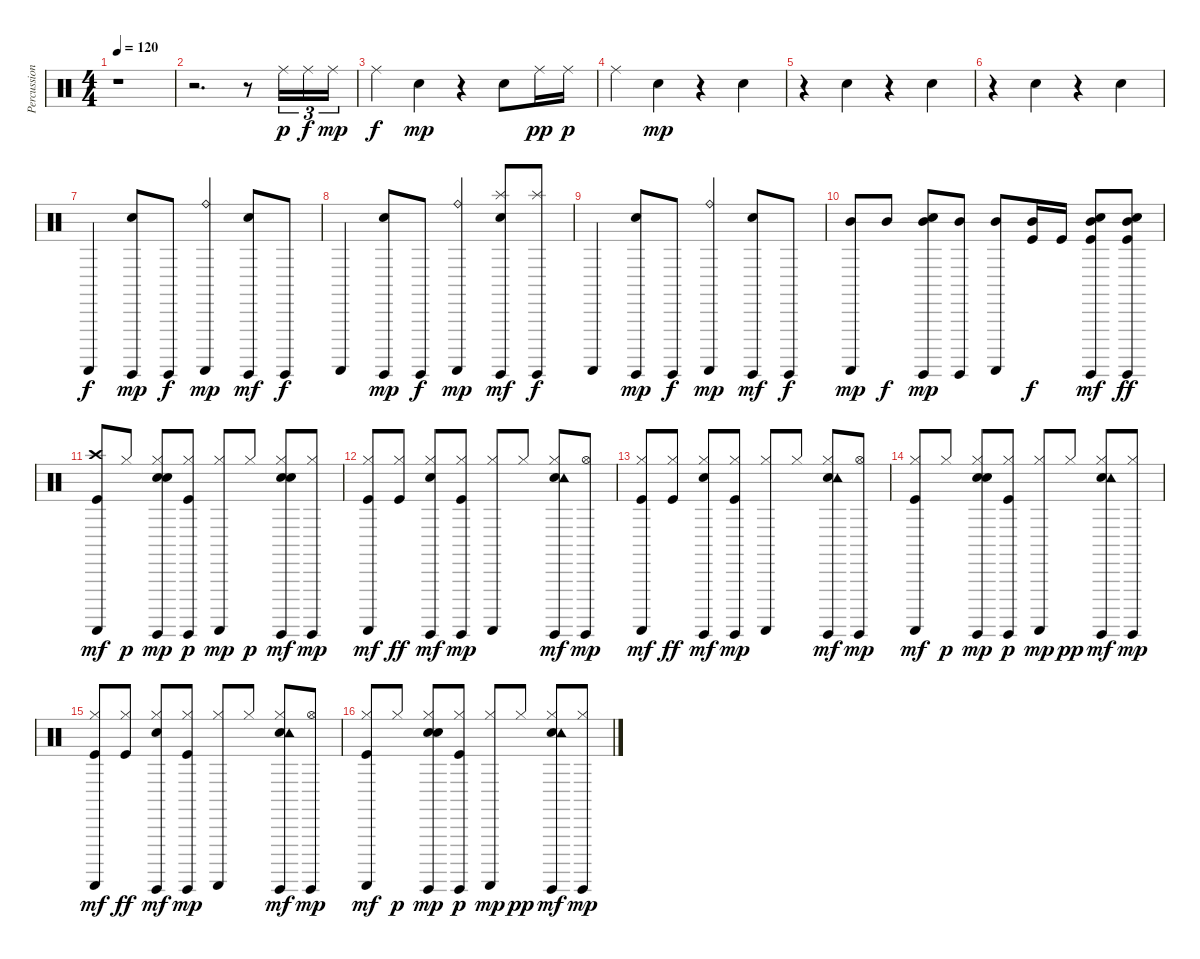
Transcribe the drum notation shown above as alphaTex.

\track ("Percussions" "Percussion") {instrument percussion}
\staff {score}
\articulation defaults
\ts (4 4)
\tempo 120
\clef neutral
\ks c
r.1{dy p} |
r.2{d} r.8 "Ride (middle)".16{tu (3 2)} "Ride (middle)".16{tu (3 2) dy f} "Ride (middle)".16{tu (3 2) dy mp} |
"Ride (middle)".4{dy f} "Hand Clap (hit)".4{dy mp} r.4 "Hand Clap (hit)".8 "Ride (middle)".16{dy pp} "Ride (middle)".16{dy p} |
"Ride (middle)".4 "Hand Clap (hit)".4{dy mp} r.4 "Hand Clap (hit)".4 |
r.4 "Hand Clap (hit)".4 r.4 "Hand Clap (hit)".4 |
r.4 "Hand Clap (hit)".4 r.4 "Hand Clap (hit)".4 |
"Guiro (scrap-return)".4{dy f} ("Hand Clap (hit)" "Guiro (hit)").8{dy mp} "Guiro (hit)".8{dy f} ("Ride (bell)" "Guiro (scrap-return)").4{dy mp} ("Hand Clap (hit)" "Guiro (hit)").8{dy mf} "Guiro (hit)".8{dy f} |
"Guiro (scrap-return)".4 ("Hand Clap (hit)" "Guiro (hit)").8{dy mp} "Guiro (hit)".8{dy f} ("Ride (bell)" "Guiro (scrap-return)").4{dy mp} ("Hand Clap (hit)" "Guiro (hit)" "Splash (hit)").8{dy mf} ("Guiro (hit)" "Splash (hit)").8{dy f} |
"Guiro (scrap-return)".4 ("Hand Clap (hit)" "Guiro (hit)").8{dy mp} "Guiro (hit)".8{dy f} ("Ride (bell)" "Guiro (scrap-return)").4{dy mp} ("Hand Clap (hit)" "Guiro (hit)").8{dy mf} "Guiro (hit)".8{dy f} |
("Guiro (scrap-return)" "Mid Tom (hit)").8{dy mp} "Mid Tom (hit)".8{dy f} ("Hand Clap (hit)" "Guiro (hit)" "Mid Tom (hit)").8{dy mp} ("Guiro (hit)" "Mid Tom (hit)").8 ("Mid Tom (hit)" "Guiro (scrap-return)").8 ("Mid Tom (hit)" "Kick (hit)").16{dy f} "Kick (hit)".16 ("Hand Clap (hit)" "Guiro (hit)" "Mid Tom (hit)" "Kick (hit)").8{dy mf} ("Hand Clap (hit)" "Guiro (hit)" "Mid Tom (hit)" "Kick (hit)").8{dy ff} |
("Crash high (hit)" "Guiro (scrap-return)" "Kick (hit)").8{dy mf} "Hi-Hat (closed)".8{dy p} ("Hi-Hat (closed)" "Guiro (hit)" "Snare (hit) 2" "Hand Clap (hit)").8{dy mp} ("Hi-Hat (closed)" "Guiro (hit)" "Kick (hit)").8{dy p} ("Hi-Hat (closed)" "Guiro (scrap-return)").8{dy mp} "Hi-Hat (closed)".8{dy p} ("Hi-Hat (closed)" "Guiro (hit)" "Snare (hit) 2" "Hand Clap (hit)").8{dy mf} ("Hi-Hat (closed)" "Guiro (hit)").8{dy mp} |
("Hi-Hat (closed)" "Guiro (scrap-return)" "Kick (hit)").8{dy mf} ("Hi-Hat (closed)" "Kick (hit)").8{dy ff} ("Hi-Hat (closed)" "Guiro (hit)" "Snare (hit) 2").8{dy mf} ("Hi-Hat (closed)" "Guiro (hit)" "Kick (hit)").8{dy mp} ("Hi-Hat (closed)" "Guiro (scrap-return)").8 "Hi-Hat (closed)".8 ("Hi-Hat (closed)" "Guiro (hit)" "Snare (hit) 2" "Tambourine (hit)").8{dy mf} ("Hi-Hat (open)" "Guiro (hit)").8{dy mp} |
("Hi-Hat (closed)" "Guiro (scrap-return)" "Kick (hit)").8{dy mf} ("Hi-Hat (closed)" "Kick (hit)").8{dy ff} ("Hi-Hat (closed)" "Guiro (hit)" "Snare (hit) 2").8{dy mf} ("Hi-Hat (closed)" "Guiro (hit)" "Kick (hit)").8{dy mp} ("Hi-Hat (closed)" "Guiro (scrap-return)").8 "Hi-Hat (closed)".8 ("Hi-Hat (closed)" "Guiro (hit)" "Snare (hit) 2" "Tambourine (hit)").8{dy mf} ("Hi-Hat (open)" "Guiro (hit)").8{dy mp} |
("Hi-Hat (closed)" "Guiro (scrap-return)" "Kick (hit)").8{dy mf} "Hi-Hat (closed)".8{dy p} ("Hi-Hat (closed)" "Guiro (hit)" "Snare (hit) 2" "Hand Clap (hit)").8{dy mp} ("Hi-Hat (closed)" "Guiro (hit)" "Kick (hit)").8{dy p} ("Hi-Hat (closed)" "Guiro (scrap-return)").8{dy mp} "Hi-Hat (closed)".8{dy pp} ("Hi-Hat (closed)" "Guiro (hit)" "Snare (hit) 2" "Tambourine (hit)").8{dy mf} ("Hi-Hat (closed)" "Guiro (hit)").8{dy mp} |
("Hi-Hat (closed)" "Guiro (scrap-return)" "Kick (hit)").8{dy mf} ("Hi-Hat (closed)" "Kick (hit)").8{dy ff} ("Hi-Hat (closed)" "Guiro (hit)" "Snare (hit) 2").8{dy mf} ("Hi-Hat (closed)" "Guiro (hit)" "Kick (hit)").8{dy mp} ("Hi-Hat (closed)" "Guiro (scrap-return)").8 "Hi-Hat (closed)".8 ("Hi-Hat (closed)" "Guiro (hit)" "Snare (hit) 2" "Tambourine (hit)").8{dy mf} ("Hi-Hat (open)" "Guiro (hit)").8{dy mp} |
("Hi-Hat (closed)" "Guiro (scrap-return)" "Kick (hit)").8{dy mf} "Hi-Hat (closed)".8{dy p} ("Hi-Hat (closed)" "Guiro (hit)" "Snare (hit) 2" "Hand Clap (hit)").8{dy mp} ("Hi-Hat (closed)" "Guiro (hit)" "Kick (hit)").8{dy p} ("Hi-Hat (closed)" "Guiro (scrap-return)").8{dy mp} "Hi-Hat (closed)".8{dy pp} ("Hi-Hat (closed)" "Guiro (hit)" "Snare (hit) 2" "Tambourine (hit)").8{dy mf} ("Hi-Hat (closed)" "Guiro (hit)").8{dy mp}
